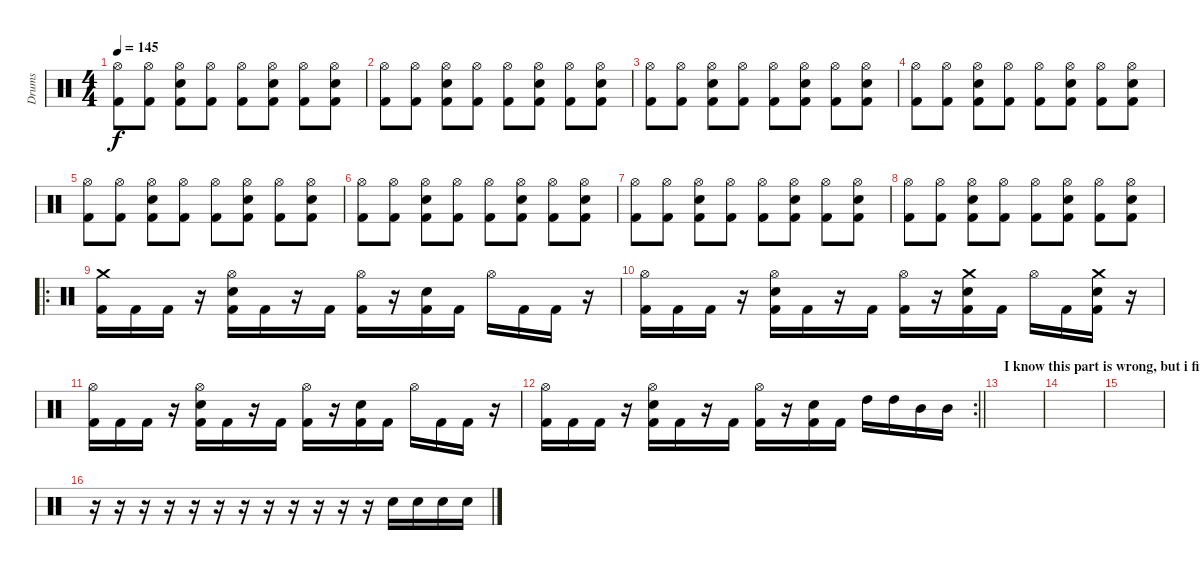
\track ("Drums" "Drums") {instrument percussion}
\staff {score}
\articulation defaults
\ts (4 4)
\tempo 145
\clef neutral
\ks c
("Hi-Hat (open)" "Kick (hit) 2").8{dy f} ("Hi-Hat (open)" "Kick (hit) 2").8 ("Hi-Hat (open)" "Electric Snare (hit)" "Kick (hit) 2").8 ("Hi-Hat (open)" "Kick (hit) 2").8 ("Hi-Hat (open)" "Kick (hit) 2").8 ("Hi-Hat (open)" "Electric Snare (hit)" "Kick (hit) 2").8 ("Hi-Hat (open)" "Kick (hit) 2").8 ("Hi-Hat (open)" "Electric Snare (hit)" "Kick (hit) 2").8 |
("Hi-Hat (open)" "Kick (hit) 2").8 ("Hi-Hat (open)" "Kick (hit) 2").8 ("Hi-Hat (open)" "Electric Snare (hit)" "Kick (hit) 2").8 ("Hi-Hat (open)" "Kick (hit) 2").8 ("Hi-Hat (open)" "Kick (hit) 2").8 ("Hi-Hat (open)" "Electric Snare (hit)" "Kick (hit) 2").8 ("Hi-Hat (open)" "Kick (hit) 2").8 ("Hi-Hat (open)" "Electric Snare (hit)" "Kick (hit) 2").8 |
("Hi-Hat (open)" "Kick (hit) 2").8 ("Hi-Hat (open)" "Kick (hit) 2").8 ("Hi-Hat (open)" "Electric Snare (hit)" "Kick (hit) 2").8 ("Hi-Hat (open)" "Kick (hit) 2").8 ("Hi-Hat (open)" "Kick (hit) 2").8 ("Hi-Hat (open)" "Electric Snare (hit)" "Kick (hit) 2").8 ("Hi-Hat (open)" "Kick (hit) 2").8 ("Hi-Hat (open)" "Electric Snare (hit)" "Kick (hit) 2").8 |
("Hi-Hat (open)" "Kick (hit) 2").8 ("Hi-Hat (open)" "Kick (hit) 2").8 ("Hi-Hat (open)" "Electric Snare (hit)" "Kick (hit) 2").8 ("Hi-Hat (open)" "Kick (hit) 2").8 ("Hi-Hat (open)" "Kick (hit) 2").8 ("Hi-Hat (open)" "Electric Snare (hit)" "Kick (hit) 2").8 ("Hi-Hat (open)" "Kick (hit) 2").8 ("Hi-Hat (open)" "Electric Snare (hit)" "Kick (hit) 2").8 |
("Hi-Hat (open)" "Kick (hit) 2").8 ("Hi-Hat (open)" "Kick (hit) 2").8 ("Hi-Hat (open)" "Electric Snare (hit)" "Kick (hit) 2").8 ("Hi-Hat (open)" "Kick (hit) 2").8 ("Hi-Hat (open)" "Kick (hit) 2").8 ("Hi-Hat (open)" "Electric Snare (hit)" "Kick (hit) 2").8 ("Hi-Hat (open)" "Kick (hit) 2").8 ("Hi-Hat (open)" "Electric Snare (hit)" "Kick (hit) 2").8 |
("Hi-Hat (open)" "Kick (hit) 2").8 ("Hi-Hat (open)" "Kick (hit) 2").8 ("Hi-Hat (open)" "Electric Snare (hit)" "Kick (hit) 2").8 ("Hi-Hat (open)" "Kick (hit) 2").8 ("Hi-Hat (open)" "Kick (hit) 2").8 ("Hi-Hat (open)" "Electric Snare (hit)" "Kick (hit) 2").8 ("Hi-Hat (open)" "Kick (hit) 2").8 ("Hi-Hat (open)" "Electric Snare (hit)" "Kick (hit) 2").8 |
("Hi-Hat (open)" "Kick (hit) 2").8 ("Hi-Hat (open)" "Kick (hit) 2").8 ("Hi-Hat (open)" "Electric Snare (hit)" "Kick (hit) 2").8 ("Hi-Hat (open)" "Kick (hit) 2").8 ("Hi-Hat (open)" "Kick (hit) 2").8 ("Hi-Hat (open)" "Electric Snare (hit)" "Kick (hit) 2").8 ("Hi-Hat (open)" "Kick (hit) 2").8 ("Hi-Hat (open)" "Electric Snare (hit)" "Kick (hit) 2").8 |
("Hi-Hat (open)" "Kick (hit) 2").8 ("Hi-Hat (open)" "Kick (hit) 2").8 ("Hi-Hat (open)" "Electric Snare (hit)" "Kick (hit) 2").8 ("Hi-Hat (open)" "Kick (hit) 2").8 ("Hi-Hat (open)" "Kick (hit) 2").8 ("Hi-Hat (open)" "Electric Snare (hit)" "Kick (hit) 2").8 ("Hi-Hat (open)" "Kick (hit) 2").8 ("Hi-Hat (open)" "Electric Snare (hit)" "Kick (hit) 2").8 |
\ro
("Crash medium (hit)" "Kick (hit) 2").16 "Kick (hit) 2".16 "Kick (hit) 2".16 r.16 ("Hi-Hat (open)" "Electric Snare (hit)" "Kick (hit) 2").16 "Kick (hit) 2".16 r.16 "Kick (hit) 2".16 ("Hi-Hat (open)" "Kick (hit) 2").16 r.16 ("Electric Snare (hit)" "Kick (hit) 2").16 "Kick (hit) 2".16 "Hi-Hat (open)".16 "Kick (hit) 2".16 "Kick (hit) 2".16 r.16 |
("Hi-Hat (open)" "Kick (hit) 2").16 "Kick (hit) 2".16 "Kick (hit) 2".16 r.16 ("Hi-Hat (open)" "Electric Snare (hit)" "Kick (hit) 2").16 "Kick (hit) 2".16 r.16 "Kick (hit) 2".16 ("Hi-Hat (open)" "Kick (hit) 2").16 r.16 ("Crash medium (hit)" "Electric Snare (hit)" "Kick (hit) 2").16 "Kick (hit) 2".16 "Hi-Hat (open)".16 "Kick (hit) 2".16 ("Crash medium (hit)" "Electric Snare (hit)" "Kick (hit) 2").16 r.16 |
("Hi-Hat (open)" "Kick (hit) 2").16 "Kick (hit) 2".16 "Kick (hit) 2".16 r.16 ("Hi-Hat (open)" "Electric Snare (hit)" "Kick (hit) 2").16 "Kick (hit) 2".16 r.16 "Kick (hit) 2".16 ("Hi-Hat (open)" "Kick (hit) 2").16 r.16 ("Electric Snare (hit)" "Kick (hit) 2").16 "Kick (hit) 2".16 "Hi-Hat (open)".16 "Kick (hit) 2".16 "Kick (hit) 2".16 r.16 |
\rc 2
\barLineRight lightlight
("Hi-Hat (open)" "Kick (hit) 2").16 "Kick (hit) 2".16 "Kick (hit) 2".16 r.16 ("Hi-Hat (open)" "Electric Snare (hit)" "Kick (hit) 2").16 "Kick (hit) 2".16 r.16 "Kick (hit) 2".16 ("Hi-Hat (open)" "Kick (hit) 2").16 r.16 ("Electric Snare (hit)" "Kick (hit) 2").16 "Kick (hit) 2".16 "High Tom (hit)".16 "High Tom (hit)".16 "Mid Tom (hit)".16 "Mid Tom (hit)".16 |
\section ("" "I know this part is wrong, but i fixed another things (like the guitar)")
|
|
|
r.16 r.16 r.16 r.16 r.16 r.16 r.16 r.16 r.16 r.16 r.16 r.16 "Electric Snare (hit)".16 "Electric Snare (hit)".16 "Electric Snare (hit)".16 "Electric Snare (hit)".16
